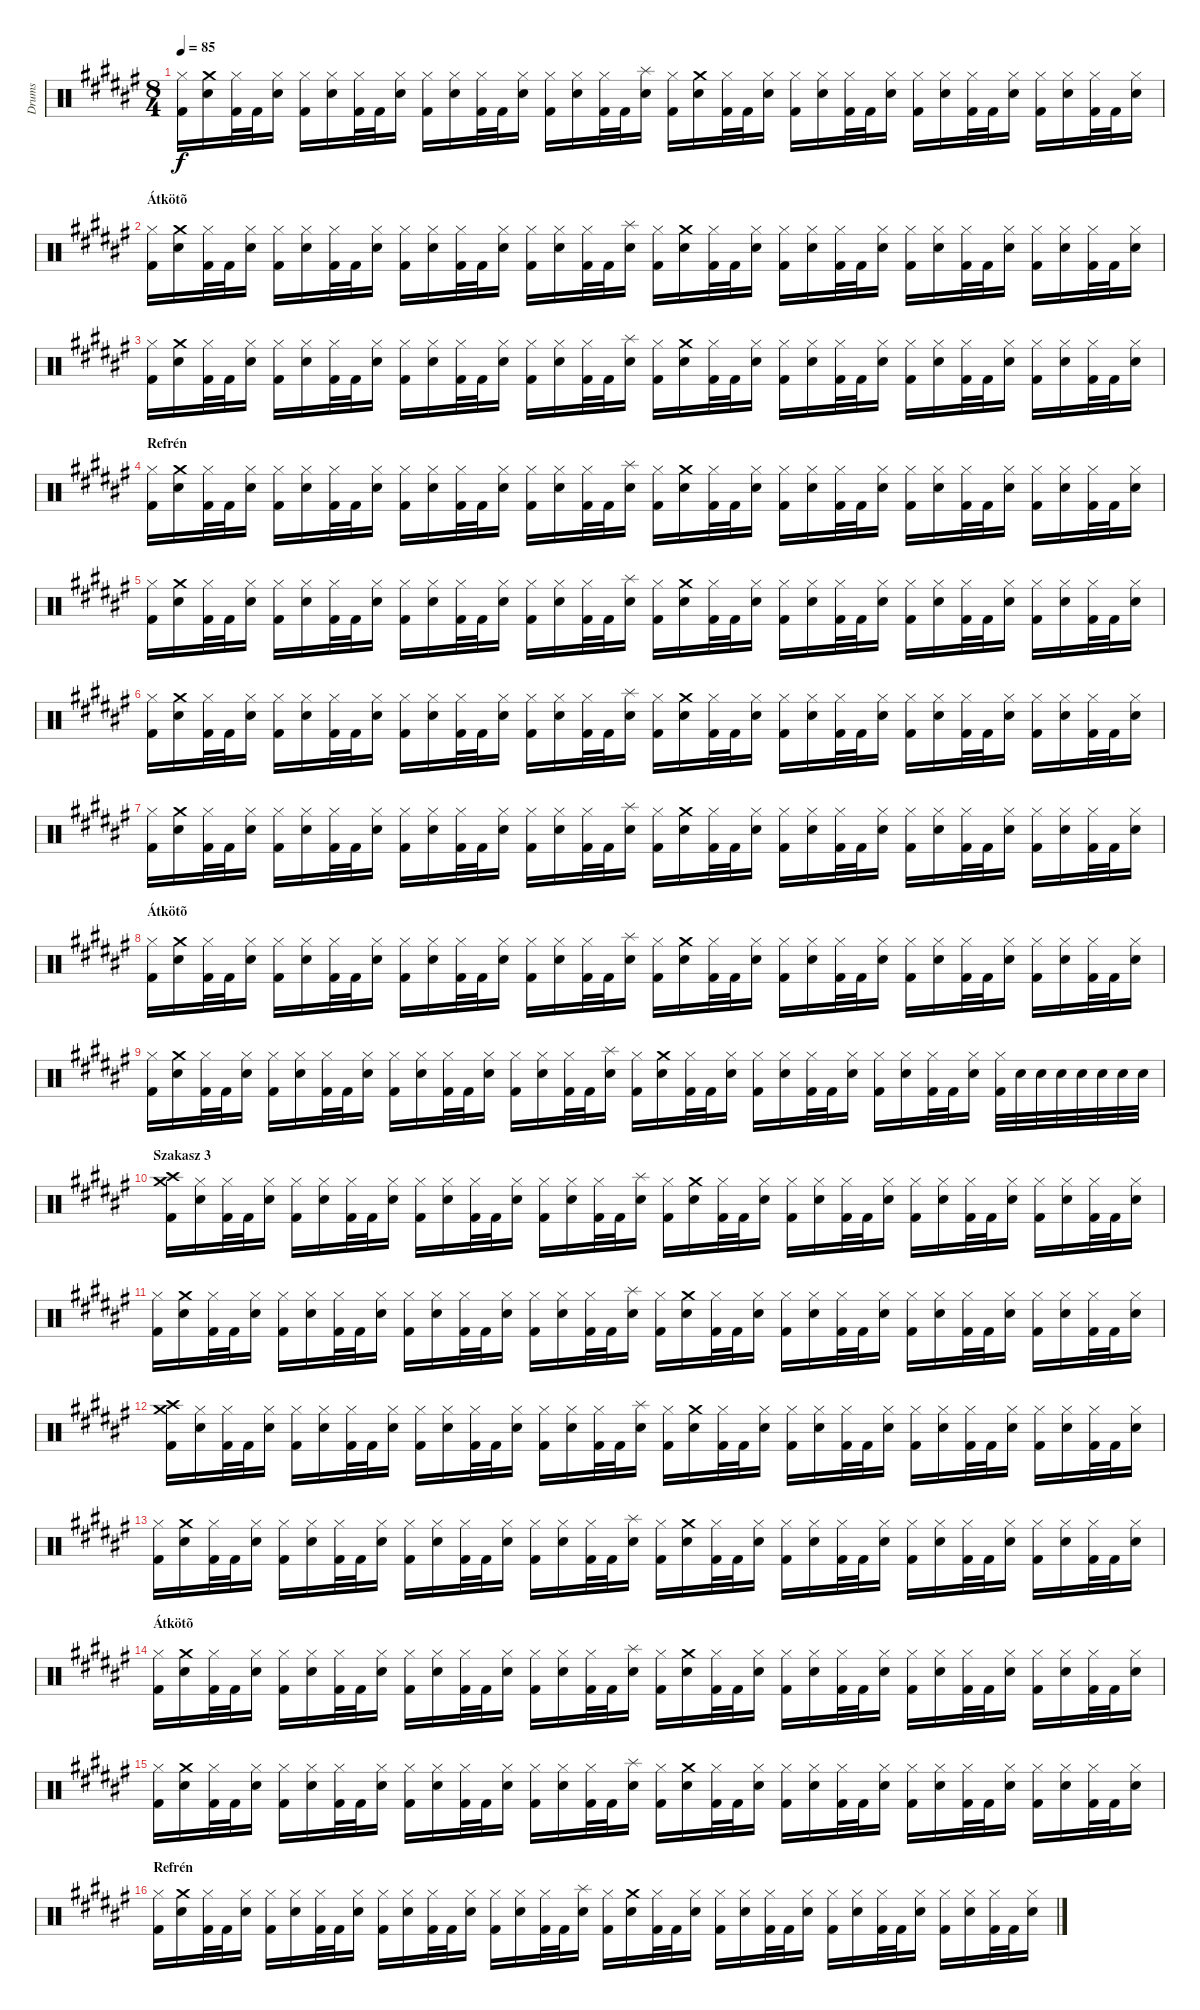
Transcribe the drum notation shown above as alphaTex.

\track ("Drums" "Drums") {instrument percussion}
\staff {score}
\articulation defaults
\ts (8 4)
\tempo 85
\clef neutral
\ks d#minor
("Hi-Hat (closed)" "Kick (hit) 2").16{dy f} ("Crash medium (hit)" "Snare (hit) 2").16 ("Hi-Hat (closed)" "Kick (hit) 2").32 "Kick (hit) 2".32 ("Hi-Hat (closed)" "Snare (hit) 2").16 ("Hi-Hat (closed)" "Kick (hit) 2").16 ("Hi-Hat (closed)" "Snare (hit) 2").16 ("Hi-Hat (closed)" "Kick (hit) 2").32 "Kick (hit) 2".32 ("Hi-Hat (closed)" "Snare (hit) 2").16 ("Hi-Hat (closed)" "Kick (hit) 2").16 ("Hi-Hat (closed)" "Snare (hit) 2").16 ("Hi-Hat (closed)" "Kick (hit) 2").32 "Kick (hit) 2".32 ("Hi-Hat (closed)" "Snare (hit) 2").16 ("Hi-Hat (closed)" "Kick (hit) 2").16 ("Hi-Hat (closed)" "Snare (hit) 2").16 ("Hi-Hat (closed)" "Kick (hit) 2").32 "Kick (hit) 2".32 ("Splash (hit)" "Snare (hit) 2").16 ("Hi-Hat (closed)" "Kick (hit) 2").16 ("Crash medium (hit)" "Snare (hit) 2").16 ("Hi-Hat (closed)" "Kick (hit) 2").32 "Kick (hit) 2".32 ("Hi-Hat (closed)" "Snare (hit) 2").16 ("Hi-Hat (closed)" "Kick (hit) 2").16 ("Hi-Hat (closed)" "Snare (hit) 2").16 ("Hi-Hat (closed)" "Kick (hit) 2").32 "Kick (hit) 2".32 ("Hi-Hat (closed)" "Snare (hit) 2").16 ("Hi-Hat (closed)" "Kick (hit) 2").16 ("Hi-Hat (closed)" "Snare (hit) 2").16 ("Hi-Hat (closed)" "Kick (hit) 2").32 "Kick (hit) 2".32 ("Hi-Hat (closed)" "Snare (hit) 2").16 ("Hi-Hat (closed)" "Kick (hit) 2").16 ("Hi-Hat (closed)" "Snare (hit) 2").16 ("Hi-Hat (closed)" "Kick (hit) 2").32 "Kick (hit) 2".32 ("Hi-Hat (closed)" "Snare (hit) 2").16 |
\section ("" "Átkötõ")
("Hi-Hat (closed)" "Kick (hit) 2").16 ("Crash medium (hit)" "Snare (hit) 2").16 ("Hi-Hat (closed)" "Kick (hit) 2").32 "Kick (hit) 2".32 ("Hi-Hat (closed)" "Snare (hit) 2").16 ("Hi-Hat (closed)" "Kick (hit) 2").16 ("Hi-Hat (closed)" "Snare (hit) 2").16 ("Hi-Hat (closed)" "Kick (hit) 2").32 "Kick (hit) 2".32 ("Hi-Hat (closed)" "Snare (hit) 2").16 ("Hi-Hat (closed)" "Kick (hit) 2").16 ("Hi-Hat (closed)" "Snare (hit) 2").16 ("Hi-Hat (closed)" "Kick (hit) 2").32 "Kick (hit) 2".32 ("Hi-Hat (closed)" "Snare (hit) 2").16 ("Hi-Hat (closed)" "Kick (hit) 2").16 ("Hi-Hat (closed)" "Snare (hit) 2").16 ("Hi-Hat (closed)" "Kick (hit) 2").32 "Kick (hit) 2".32 ("Splash (hit)" "Snare (hit) 2").16 ("Hi-Hat (closed)" "Kick (hit) 2").16 ("Crash medium (hit)" "Snare (hit) 2").16 ("Hi-Hat (closed)" "Kick (hit) 2").32 "Kick (hit) 2".32 ("Hi-Hat (closed)" "Snare (hit) 2").16 ("Hi-Hat (closed)" "Kick (hit) 2").16 ("Hi-Hat (closed)" "Snare (hit) 2").16 ("Hi-Hat (closed)" "Kick (hit) 2").32 "Kick (hit) 2".32 ("Hi-Hat (closed)" "Snare (hit) 2").16 ("Hi-Hat (closed)" "Kick (hit) 2").16 ("Hi-Hat (closed)" "Snare (hit) 2").16 ("Hi-Hat (closed)" "Kick (hit) 2").32 "Kick (hit) 2".32 ("Hi-Hat (closed)" "Snare (hit) 2").16 ("Hi-Hat (closed)" "Kick (hit) 2").16 ("Hi-Hat (closed)" "Snare (hit) 2").16 ("Hi-Hat (closed)" "Kick (hit) 2").32 "Kick (hit) 2".32 ("Hi-Hat (closed)" "Snare (hit) 2").16 |
("Hi-Hat (closed)" "Kick (hit) 2").16 ("Crash medium (hit)" "Snare (hit) 2").16 ("Hi-Hat (closed)" "Kick (hit) 2").32 "Kick (hit) 2".32 ("Hi-Hat (closed)" "Snare (hit) 2").16 ("Hi-Hat (closed)" "Kick (hit) 2").16 ("Hi-Hat (closed)" "Snare (hit) 2").16 ("Hi-Hat (closed)" "Kick (hit) 2").32 "Kick (hit) 2".32 ("Hi-Hat (closed)" "Snare (hit) 2").16 ("Hi-Hat (closed)" "Kick (hit) 2").16 ("Hi-Hat (closed)" "Snare (hit) 2").16 ("Hi-Hat (closed)" "Kick (hit) 2").32 "Kick (hit) 2".32 ("Hi-Hat (closed)" "Snare (hit) 2").16 ("Hi-Hat (closed)" "Kick (hit) 2").16 ("Hi-Hat (closed)" "Snare (hit) 2").16 ("Hi-Hat (closed)" "Kick (hit) 2").32 "Kick (hit) 2".32 ("Splash (hit)" "Snare (hit) 2").16 ("Hi-Hat (closed)" "Kick (hit) 2").16 ("Crash medium (hit)" "Snare (hit) 2").16 ("Hi-Hat (closed)" "Kick (hit) 2").32 "Kick (hit) 2".32 ("Hi-Hat (closed)" "Snare (hit) 2").16 ("Hi-Hat (closed)" "Kick (hit) 2").16 ("Hi-Hat (closed)" "Snare (hit) 2").16 ("Hi-Hat (closed)" "Kick (hit) 2").32 "Kick (hit) 2".32 ("Hi-Hat (closed)" "Snare (hit) 2").16 ("Hi-Hat (closed)" "Kick (hit) 2").16 ("Hi-Hat (closed)" "Snare (hit) 2").16 ("Hi-Hat (closed)" "Kick (hit) 2").32 "Kick (hit) 2".32 ("Hi-Hat (closed)" "Snare (hit) 2").16 ("Hi-Hat (closed)" "Kick (hit) 2").16 ("Hi-Hat (closed)" "Snare (hit) 2").16 ("Hi-Hat (closed)" "Kick (hit) 2").32 "Kick (hit) 2".32 ("Hi-Hat (closed)" "Snare (hit) 2").16 |
\section ("" "Refrén")
("Hi-Hat (closed)" "Kick (hit) 2").16 ("Crash medium (hit)" "Snare (hit) 2").16 ("Hi-Hat (closed)" "Kick (hit) 2").32 "Kick (hit) 2".32 ("Hi-Hat (closed)" "Snare (hit) 2").16 ("Hi-Hat (closed)" "Kick (hit) 2").16 ("Hi-Hat (closed)" "Snare (hit) 2").16 ("Hi-Hat (closed)" "Kick (hit) 2").32 "Kick (hit) 2".32 ("Hi-Hat (closed)" "Snare (hit) 2").16 ("Hi-Hat (closed)" "Kick (hit) 2").16 ("Hi-Hat (closed)" "Snare (hit) 2").16 ("Hi-Hat (closed)" "Kick (hit) 2").32 "Kick (hit) 2".32 ("Hi-Hat (closed)" "Snare (hit) 2").16 ("Hi-Hat (closed)" "Kick (hit) 2").16 ("Hi-Hat (closed)" "Snare (hit) 2").16 ("Hi-Hat (closed)" "Kick (hit) 2").32 "Kick (hit) 2".32 ("Splash (hit)" "Snare (hit) 2").16 ("Hi-Hat (closed)" "Kick (hit) 2").16 ("Crash medium (hit)" "Snare (hit) 2").16 ("Hi-Hat (closed)" "Kick (hit) 2").32 "Kick (hit) 2".32 ("Hi-Hat (closed)" "Snare (hit) 2").16 ("Hi-Hat (closed)" "Kick (hit) 2").16 ("Hi-Hat (closed)" "Snare (hit) 2").16 ("Hi-Hat (closed)" "Kick (hit) 2").32 "Kick (hit) 2".32 ("Hi-Hat (closed)" "Snare (hit) 2").16 ("Hi-Hat (closed)" "Kick (hit) 2").16 ("Hi-Hat (closed)" "Snare (hit) 2").16 ("Hi-Hat (closed)" "Kick (hit) 2").32 "Kick (hit) 2".32 ("Hi-Hat (closed)" "Snare (hit) 2").16 ("Hi-Hat (closed)" "Kick (hit) 2").16 ("Hi-Hat (closed)" "Snare (hit) 2").16 ("Hi-Hat (closed)" "Kick (hit) 2").32 "Kick (hit) 2".32 ("Hi-Hat (closed)" "Snare (hit) 2").16 |
("Hi-Hat (closed)" "Kick (hit) 2").16 ("Crash medium (hit)" "Snare (hit) 2").16 ("Hi-Hat (closed)" "Kick (hit) 2").32 "Kick (hit) 2".32 ("Hi-Hat (closed)" "Snare (hit) 2").16 ("Hi-Hat (closed)" "Kick (hit) 2").16 ("Hi-Hat (closed)" "Snare (hit) 2").16 ("Hi-Hat (closed)" "Kick (hit) 2").32 "Kick (hit) 2".32 ("Hi-Hat (closed)" "Snare (hit) 2").16 ("Hi-Hat (closed)" "Kick (hit) 2").16 ("Hi-Hat (closed)" "Snare (hit) 2").16 ("Hi-Hat (closed)" "Kick (hit) 2").32 "Kick (hit) 2".32 ("Hi-Hat (closed)" "Snare (hit) 2").16 ("Hi-Hat (closed)" "Kick (hit) 2").16 ("Hi-Hat (closed)" "Snare (hit) 2").16 ("Hi-Hat (closed)" "Kick (hit) 2").32 "Kick (hit) 2".32 ("Splash (hit)" "Snare (hit) 2").16 ("Hi-Hat (closed)" "Kick (hit) 2").16 ("Crash medium (hit)" "Snare (hit) 2").16 ("Hi-Hat (closed)" "Kick (hit) 2").32 "Kick (hit) 2".32 ("Hi-Hat (closed)" "Snare (hit) 2").16 ("Hi-Hat (closed)" "Kick (hit) 2").16 ("Hi-Hat (closed)" "Snare (hit) 2").16 ("Hi-Hat (closed)" "Kick (hit) 2").32 "Kick (hit) 2".32 ("Hi-Hat (closed)" "Snare (hit) 2").16 ("Hi-Hat (closed)" "Kick (hit) 2").16 ("Hi-Hat (closed)" "Snare (hit) 2").16 ("Hi-Hat (closed)" "Kick (hit) 2").32 "Kick (hit) 2".32 ("Hi-Hat (closed)" "Snare (hit) 2").16 ("Hi-Hat (closed)" "Kick (hit) 2").16 ("Hi-Hat (closed)" "Snare (hit) 2").16 ("Hi-Hat (closed)" "Kick (hit) 2").32 "Kick (hit) 2".32 ("Hi-Hat (closed)" "Snare (hit) 2").16 |
("Hi-Hat (closed)" "Kick (hit) 2").16 ("Crash medium (hit)" "Snare (hit) 2").16 ("Hi-Hat (closed)" "Kick (hit) 2").32 "Kick (hit) 2".32 ("Hi-Hat (closed)" "Snare (hit) 2").16 ("Hi-Hat (closed)" "Kick (hit) 2").16 ("Hi-Hat (closed)" "Snare (hit) 2").16 ("Hi-Hat (closed)" "Kick (hit) 2").32 "Kick (hit) 2".32 ("Hi-Hat (closed)" "Snare (hit) 2").16 ("Hi-Hat (closed)" "Kick (hit) 2").16 ("Hi-Hat (closed)" "Snare (hit) 2").16 ("Hi-Hat (closed)" "Kick (hit) 2").32 "Kick (hit) 2".32 ("Hi-Hat (closed)" "Snare (hit) 2").16 ("Hi-Hat (closed)" "Kick (hit) 2").16 ("Hi-Hat (closed)" "Snare (hit) 2").16 ("Hi-Hat (closed)" "Kick (hit) 2").32 "Kick (hit) 2".32 ("Splash (hit)" "Snare (hit) 2").16 ("Hi-Hat (closed)" "Kick (hit) 2").16 ("Crash medium (hit)" "Snare (hit) 2").16 ("Hi-Hat (closed)" "Kick (hit) 2").32 "Kick (hit) 2".32 ("Hi-Hat (closed)" "Snare (hit) 2").16 ("Hi-Hat (closed)" "Kick (hit) 2").16 ("Hi-Hat (closed)" "Snare (hit) 2").16 ("Hi-Hat (closed)" "Kick (hit) 2").32 "Kick (hit) 2".32 ("Hi-Hat (closed)" "Snare (hit) 2").16 ("Hi-Hat (closed)" "Kick (hit) 2").16 ("Hi-Hat (closed)" "Snare (hit) 2").16 ("Hi-Hat (closed)" "Kick (hit) 2").32 "Kick (hit) 2".32 ("Hi-Hat (closed)" "Snare (hit) 2").16 ("Hi-Hat (closed)" "Kick (hit) 2").16 ("Hi-Hat (closed)" "Snare (hit) 2").16 ("Hi-Hat (closed)" "Kick (hit) 2").32 "Kick (hit) 2".32 ("Hi-Hat (closed)" "Snare (hit) 2").16 |
("Hi-Hat (closed)" "Kick (hit) 2").16 ("Crash medium (hit)" "Snare (hit) 2").16 ("Hi-Hat (closed)" "Kick (hit) 2").32 "Kick (hit) 2".32 ("Hi-Hat (closed)" "Snare (hit) 2").16 ("Hi-Hat (closed)" "Kick (hit) 2").16 ("Hi-Hat (closed)" "Snare (hit) 2").16 ("Hi-Hat (closed)" "Kick (hit) 2").32 "Kick (hit) 2".32 ("Hi-Hat (closed)" "Snare (hit) 2").16 ("Hi-Hat (closed)" "Kick (hit) 2").16 ("Hi-Hat (closed)" "Snare (hit) 2").16 ("Hi-Hat (closed)" "Kick (hit) 2").32 "Kick (hit) 2".32 ("Hi-Hat (closed)" "Snare (hit) 2").16 ("Hi-Hat (closed)" "Kick (hit) 2").16 ("Hi-Hat (closed)" "Snare (hit) 2").16 ("Hi-Hat (closed)" "Kick (hit) 2").32 "Kick (hit) 2".32 ("Splash (hit)" "Snare (hit) 2").16 ("Hi-Hat (closed)" "Kick (hit) 2").16 ("Crash medium (hit)" "Snare (hit) 2").16 ("Hi-Hat (closed)" "Kick (hit) 2").32 "Kick (hit) 2".32 ("Hi-Hat (closed)" "Snare (hit) 2").16 ("Hi-Hat (closed)" "Kick (hit) 2").16 ("Hi-Hat (closed)" "Snare (hit) 2").16 ("Hi-Hat (closed)" "Kick (hit) 2").32 "Kick (hit) 2".32 ("Hi-Hat (closed)" "Snare (hit) 2").16 ("Hi-Hat (closed)" "Kick (hit) 2").16 ("Hi-Hat (closed)" "Snare (hit) 2").16 ("Hi-Hat (closed)" "Kick (hit) 2").32 "Kick (hit) 2".32 ("Hi-Hat (closed)" "Snare (hit) 2").16 ("Hi-Hat (closed)" "Kick (hit) 2").16 ("Hi-Hat (closed)" "Snare (hit) 2").16 ("Hi-Hat (closed)" "Kick (hit) 2").32 "Kick (hit) 2".32 ("Hi-Hat (closed)" "Snare (hit) 2").16 |
\section ("" "Átkötõ")
("Hi-Hat (closed)" "Kick (hit) 2").16 ("Crash medium (hit)" "Snare (hit) 2").16 ("Hi-Hat (closed)" "Kick (hit) 2").32 "Kick (hit) 2".32 ("Hi-Hat (closed)" "Snare (hit) 2").16 ("Hi-Hat (closed)" "Kick (hit) 2").16 ("Hi-Hat (closed)" "Snare (hit) 2").16 ("Hi-Hat (closed)" "Kick (hit) 2").32 "Kick (hit) 2".32 ("Hi-Hat (closed)" "Snare (hit) 2").16 ("Hi-Hat (closed)" "Kick (hit) 2").16 ("Hi-Hat (closed)" "Snare (hit) 2").16 ("Hi-Hat (closed)" "Kick (hit) 2").32 "Kick (hit) 2".32 ("Hi-Hat (closed)" "Snare (hit) 2").16 ("Hi-Hat (closed)" "Kick (hit) 2").16 ("Hi-Hat (closed)" "Snare (hit) 2").16 ("Hi-Hat (closed)" "Kick (hit) 2").32 "Kick (hit) 2".32 ("Splash (hit)" "Snare (hit) 2").16 ("Hi-Hat (closed)" "Kick (hit) 2").16 ("Crash medium (hit)" "Snare (hit) 2").16 ("Hi-Hat (closed)" "Kick (hit) 2").32 "Kick (hit) 2".32 ("Hi-Hat (closed)" "Snare (hit) 2").16 ("Hi-Hat (closed)" "Kick (hit) 2").16 ("Hi-Hat (closed)" "Snare (hit) 2").16 ("Hi-Hat (closed)" "Kick (hit) 2").32 "Kick (hit) 2".32 ("Hi-Hat (closed)" "Snare (hit) 2").16 ("Hi-Hat (closed)" "Kick (hit) 2").16 ("Hi-Hat (closed)" "Snare (hit) 2").16 ("Hi-Hat (closed)" "Kick (hit) 2").32 "Kick (hit) 2".32 ("Hi-Hat (closed)" "Snare (hit) 2").16 ("Hi-Hat (closed)" "Kick (hit) 2").16 ("Hi-Hat (closed)" "Snare (hit) 2").16 ("Hi-Hat (closed)" "Kick (hit) 2").32 "Kick (hit) 2".32 ("Hi-Hat (closed)" "Snare (hit) 2").16 |
("Hi-Hat (closed)" "Kick (hit) 2").16 ("Crash medium (hit)" "Snare (hit) 2").16 ("Hi-Hat (closed)" "Kick (hit) 2").32 "Kick (hit) 2".32 ("Hi-Hat (closed)" "Snare (hit) 2").16 ("Hi-Hat (closed)" "Kick (hit) 2").16 ("Hi-Hat (closed)" "Snare (hit) 2").16 ("Hi-Hat (closed)" "Kick (hit) 2").32 "Kick (hit) 2".32 ("Hi-Hat (closed)" "Snare (hit) 2").16 ("Hi-Hat (closed)" "Kick (hit) 2").16 ("Hi-Hat (closed)" "Snare (hit) 2").16 ("Hi-Hat (closed)" "Kick (hit) 2").32 "Kick (hit) 2".32 ("Hi-Hat (closed)" "Snare (hit) 2").16 ("Hi-Hat (closed)" "Kick (hit) 2").16 ("Hi-Hat (closed)" "Snare (hit) 2").16 ("Hi-Hat (closed)" "Kick (hit) 2").32 "Kick (hit) 2".32 ("Splash (hit)" "Snare (hit) 2").16 ("Hi-Hat (closed)" "Kick (hit) 2").16 ("Crash medium (hit)" "Snare (hit) 2").16 ("Hi-Hat (closed)" "Kick (hit) 2").32 "Kick (hit) 2".32 ("Hi-Hat (closed)" "Snare (hit) 2").16 ("Hi-Hat (closed)" "Kick (hit) 2").16 ("Hi-Hat (closed)" "Snare (hit) 2").16 ("Hi-Hat (closed)" "Kick (hit) 2").32 "Kick (hit) 2".32 ("Hi-Hat (closed)" "Snare (hit) 2").16 ("Hi-Hat (closed)" "Kick (hit) 2").16 ("Hi-Hat (closed)" "Snare (hit) 2").16 ("Hi-Hat (closed)" "Kick (hit) 2").32 "Kick (hit) 2".32 ("Hi-Hat (closed)" "Snare (hit) 2").16 ("Hi-Hat (closed)" "Kick (hit) 2").32 "Snare (hit) 2".32 "Snare (hit) 2".32 "Snare (hit) 2".32 "Snare (hit) 2".32 "Snare (hit) 2".32 "Snare (hit) 2".32 "Snare (hit) 2".32 |
\section ("" "Szakasz 3")
("Crash medium (hit)" "Crash high (hit)" "Kick (hit) 2").16 ("Hi-Hat (closed)" "Snare (hit) 2").16 ("Hi-Hat (closed)" "Kick (hit) 2").32 "Kick (hit) 2".32 ("Hi-Hat (closed)" "Snare (hit) 2").16 ("Hi-Hat (closed)" "Kick (hit) 2").16 ("Hi-Hat (closed)" "Snare (hit) 2").16 ("Hi-Hat (closed)" "Kick (hit) 2").32 "Kick (hit) 2".32 ("Hi-Hat (closed)" "Snare (hit) 2").16 ("Hi-Hat (closed)" "Kick (hit) 2").16 ("Hi-Hat (closed)" "Snare (hit) 2").16 ("Hi-Hat (closed)" "Kick (hit) 2").32 "Kick (hit) 2".32 ("Hi-Hat (closed)" "Snare (hit) 2").16 ("Hi-Hat (closed)" "Kick (hit) 2").16 ("Hi-Hat (closed)" "Snare (hit) 2").16 ("Hi-Hat (closed)" "Kick (hit) 2").32 "Kick (hit) 2".32 ("Splash (hit)" "Snare (hit) 2").16 ("Hi-Hat (closed)" "Kick (hit) 2").16 ("Crash medium (hit)" "Snare (hit) 2").16 ("Hi-Hat (closed)" "Kick (hit) 2").32 "Kick (hit) 2".32 ("Hi-Hat (closed)" "Snare (hit) 2").16 ("Hi-Hat (closed)" "Kick (hit) 2").16 ("Hi-Hat (closed)" "Snare (hit) 2").16 ("Hi-Hat (closed)" "Kick (hit) 2").32 "Kick (hit) 2".32 ("Hi-Hat (closed)" "Snare (hit) 2").16 ("Hi-Hat (closed)" "Kick (hit) 2").16 ("Hi-Hat (closed)" "Snare (hit) 2").16 ("Hi-Hat (closed)" "Kick (hit) 2").32 "Kick (hit) 2".32 ("Hi-Hat (closed)" "Snare (hit) 2").16 ("Hi-Hat (closed)" "Kick (hit) 2").16 ("Hi-Hat (closed)" "Snare (hit) 2").16 ("Hi-Hat (closed)" "Kick (hit) 2").32 "Kick (hit) 2".32 ("Hi-Hat (closed)" "Snare (hit) 2").16 |
("Hi-Hat (closed)" "Kick (hit) 2").16 ("Crash medium (hit)" "Snare (hit) 2").16 ("Hi-Hat (closed)" "Kick (hit) 2").32 "Kick (hit) 2".32 ("Hi-Hat (closed)" "Snare (hit) 2").16 ("Hi-Hat (closed)" "Kick (hit) 2").16 ("Hi-Hat (closed)" "Snare (hit) 2").16 ("Hi-Hat (closed)" "Kick (hit) 2").32 "Kick (hit) 2".32 ("Hi-Hat (closed)" "Snare (hit) 2").16 ("Hi-Hat (closed)" "Kick (hit) 2").16 ("Hi-Hat (closed)" "Snare (hit) 2").16 ("Hi-Hat (closed)" "Kick (hit) 2").32 "Kick (hit) 2".32 ("Hi-Hat (closed)" "Snare (hit) 2").16 ("Hi-Hat (closed)" "Kick (hit) 2").16 ("Hi-Hat (closed)" "Snare (hit) 2").16 ("Hi-Hat (closed)" "Kick (hit) 2").32 "Kick (hit) 2".32 ("Splash (hit)" "Snare (hit) 2").16 ("Hi-Hat (closed)" "Kick (hit) 2").16 ("Crash medium (hit)" "Snare (hit) 2").16 ("Hi-Hat (closed)" "Kick (hit) 2").32 "Kick (hit) 2".32 ("Hi-Hat (closed)" "Snare (hit) 2").16 ("Hi-Hat (closed)" "Kick (hit) 2").16 ("Hi-Hat (closed)" "Snare (hit) 2").16 ("Hi-Hat (closed)" "Kick (hit) 2").32 "Kick (hit) 2".32 ("Hi-Hat (closed)" "Snare (hit) 2").16 ("Hi-Hat (closed)" "Kick (hit) 2").16 ("Hi-Hat (closed)" "Snare (hit) 2").16 ("Hi-Hat (closed)" "Kick (hit) 2").32 "Kick (hit) 2".32 ("Hi-Hat (closed)" "Snare (hit) 2").16 ("Hi-Hat (closed)" "Kick (hit) 2").16 ("Hi-Hat (closed)" "Snare (hit) 2").16 ("Hi-Hat (closed)" "Kick (hit) 2").32 "Kick (hit) 2".32 ("Hi-Hat (closed)" "Snare (hit) 2").16 |
("Crash medium (hit)" "Crash high (hit)" "Kick (hit) 2").16 ("Hi-Hat (closed)" "Snare (hit) 2").16 ("Hi-Hat (closed)" "Kick (hit) 2").32 "Kick (hit) 2".32 ("Hi-Hat (closed)" "Snare (hit) 2").16 ("Hi-Hat (closed)" "Kick (hit) 2").16 ("Hi-Hat (closed)" "Snare (hit) 2").16 ("Hi-Hat (closed)" "Kick (hit) 2").32 "Kick (hit) 2".32 ("Hi-Hat (closed)" "Snare (hit) 2").16 ("Hi-Hat (closed)" "Kick (hit) 2").16 ("Hi-Hat (closed)" "Snare (hit) 2").16 ("Hi-Hat (closed)" "Kick (hit) 2").32 "Kick (hit) 2".32 ("Hi-Hat (closed)" "Snare (hit) 2").16 ("Hi-Hat (closed)" "Kick (hit) 2").16 ("Hi-Hat (closed)" "Snare (hit) 2").16 ("Hi-Hat (closed)" "Kick (hit) 2").32 "Kick (hit) 2".32 ("Splash (hit)" "Snare (hit) 2").16 ("Hi-Hat (closed)" "Kick (hit) 2").16 ("Crash medium (hit)" "Snare (hit) 2").16 ("Hi-Hat (closed)" "Kick (hit) 2").32 "Kick (hit) 2".32 ("Hi-Hat (closed)" "Snare (hit) 2").16 ("Hi-Hat (closed)" "Kick (hit) 2").16 ("Hi-Hat (closed)" "Snare (hit) 2").16 ("Hi-Hat (closed)" "Kick (hit) 2").32 "Kick (hit) 2".32 ("Hi-Hat (closed)" "Snare (hit) 2").16 ("Hi-Hat (closed)" "Kick (hit) 2").16 ("Hi-Hat (closed)" "Snare (hit) 2").16 ("Hi-Hat (closed)" "Kick (hit) 2").32 "Kick (hit) 2".32 ("Hi-Hat (closed)" "Snare (hit) 2").16 ("Hi-Hat (closed)" "Kick (hit) 2").16 ("Hi-Hat (closed)" "Snare (hit) 2").16 ("Hi-Hat (closed)" "Kick (hit) 2").32 "Kick (hit) 2".32 ("Hi-Hat (closed)" "Snare (hit) 2").16 |
("Hi-Hat (closed)" "Kick (hit) 2").16 ("Crash medium (hit)" "Snare (hit) 2").16 ("Hi-Hat (closed)" "Kick (hit) 2").32 "Kick (hit) 2".32 ("Hi-Hat (closed)" "Snare (hit) 2").16 ("Hi-Hat (closed)" "Kick (hit) 2").16 ("Hi-Hat (closed)" "Snare (hit) 2").16 ("Hi-Hat (closed)" "Kick (hit) 2").32 "Kick (hit) 2".32 ("Hi-Hat (closed)" "Snare (hit) 2").16 ("Hi-Hat (closed)" "Kick (hit) 2").16 ("Hi-Hat (closed)" "Snare (hit) 2").16 ("Hi-Hat (closed)" "Kick (hit) 2").32 "Kick (hit) 2".32 ("Hi-Hat (closed)" "Snare (hit) 2").16 ("Hi-Hat (closed)" "Kick (hit) 2").16 ("Hi-Hat (closed)" "Snare (hit) 2").16 ("Hi-Hat (closed)" "Kick (hit) 2").32 "Kick (hit) 2".32 ("Splash (hit)" "Snare (hit) 2").16 ("Hi-Hat (closed)" "Kick (hit) 2").16 ("Crash medium (hit)" "Snare (hit) 2").16 ("Hi-Hat (closed)" "Kick (hit) 2").32 "Kick (hit) 2".32 ("Hi-Hat (closed)" "Snare (hit) 2").16 ("Hi-Hat (closed)" "Kick (hit) 2").16 ("Hi-Hat (closed)" "Snare (hit) 2").16 ("Hi-Hat (closed)" "Kick (hit) 2").32 "Kick (hit) 2".32 ("Hi-Hat (closed)" "Snare (hit) 2").16 ("Hi-Hat (closed)" "Kick (hit) 2").16 ("Hi-Hat (closed)" "Snare (hit) 2").16 ("Hi-Hat (closed)" "Kick (hit) 2").32 "Kick (hit) 2".32 ("Hi-Hat (closed)" "Snare (hit) 2").16 ("Hi-Hat (closed)" "Kick (hit) 2").16 ("Hi-Hat (closed)" "Snare (hit) 2").16 ("Hi-Hat (closed)" "Kick (hit) 2").32 "Kick (hit) 2".32 ("Hi-Hat (closed)" "Snare (hit) 2").16 |
\section ("" "Átkötõ")
("Hi-Hat (closed)" "Kick (hit) 2").16 ("Crash medium (hit)" "Snare (hit) 2").16 ("Hi-Hat (closed)" "Kick (hit) 2").32 "Kick (hit) 2".32 ("Hi-Hat (closed)" "Snare (hit) 2").16 ("Hi-Hat (closed)" "Kick (hit) 2").16 ("Hi-Hat (closed)" "Snare (hit) 2").16 ("Hi-Hat (closed)" "Kick (hit) 2").32 "Kick (hit) 2".32 ("Hi-Hat (closed)" "Snare (hit) 2").16 ("Hi-Hat (closed)" "Kick (hit) 2").16 ("Hi-Hat (closed)" "Snare (hit) 2").16 ("Hi-Hat (closed)" "Kick (hit) 2").32 "Kick (hit) 2".32 ("Hi-Hat (closed)" "Snare (hit) 2").16 ("Hi-Hat (closed)" "Kick (hit) 2").16 ("Hi-Hat (closed)" "Snare (hit) 2").16 ("Hi-Hat (closed)" "Kick (hit) 2").32 "Kick (hit) 2".32 ("Splash (hit)" "Snare (hit) 2").16 ("Hi-Hat (closed)" "Kick (hit) 2").16 ("Crash medium (hit)" "Snare (hit) 2").16 ("Hi-Hat (closed)" "Kick (hit) 2").32 "Kick (hit) 2".32 ("Hi-Hat (closed)" "Snare (hit) 2").16 ("Hi-Hat (closed)" "Kick (hit) 2").16 ("Hi-Hat (closed)" "Snare (hit) 2").16 ("Hi-Hat (closed)" "Kick (hit) 2").32 "Kick (hit) 2".32 ("Hi-Hat (closed)" "Snare (hit) 2").16 ("Hi-Hat (closed)" "Kick (hit) 2").16 ("Hi-Hat (closed)" "Snare (hit) 2").16 ("Hi-Hat (closed)" "Kick (hit) 2").32 "Kick (hit) 2".32 ("Hi-Hat (closed)" "Snare (hit) 2").16 ("Hi-Hat (closed)" "Kick (hit) 2").16 ("Hi-Hat (closed)" "Snare (hit) 2").16 ("Hi-Hat (closed)" "Kick (hit) 2").32 "Kick (hit) 2".32 ("Hi-Hat (closed)" "Snare (hit) 2").16 |
("Hi-Hat (closed)" "Kick (hit) 2").16 ("Crash medium (hit)" "Snare (hit) 2").16 ("Hi-Hat (closed)" "Kick (hit) 2").32 "Kick (hit) 2".32 ("Hi-Hat (closed)" "Snare (hit) 2").16 ("Hi-Hat (closed)" "Kick (hit) 2").16 ("Hi-Hat (closed)" "Snare (hit) 2").16 ("Hi-Hat (closed)" "Kick (hit) 2").32 "Kick (hit) 2".32 ("Hi-Hat (closed)" "Snare (hit) 2").16 ("Hi-Hat (closed)" "Kick (hit) 2").16 ("Hi-Hat (closed)" "Snare (hit) 2").16 ("Hi-Hat (closed)" "Kick (hit) 2").32 "Kick (hit) 2".32 ("Hi-Hat (closed)" "Snare (hit) 2").16 ("Hi-Hat (closed)" "Kick (hit) 2").16 ("Hi-Hat (closed)" "Snare (hit) 2").16 ("Hi-Hat (closed)" "Kick (hit) 2").32 "Kick (hit) 2".32 ("Splash (hit)" "Snare (hit) 2").16 ("Hi-Hat (closed)" "Kick (hit) 2").16 ("Crash medium (hit)" "Snare (hit) 2").16 ("Hi-Hat (closed)" "Kick (hit) 2").32 "Kick (hit) 2".32 ("Hi-Hat (closed)" "Snare (hit) 2").16 ("Hi-Hat (closed)" "Kick (hit) 2").16 ("Hi-Hat (closed)" "Snare (hit) 2").16 ("Hi-Hat (closed)" "Kick (hit) 2").32 "Kick (hit) 2".32 ("Hi-Hat (closed)" "Snare (hit) 2").16 ("Hi-Hat (closed)" "Kick (hit) 2").16 ("Hi-Hat (closed)" "Snare (hit) 2").16 ("Hi-Hat (closed)" "Kick (hit) 2").32 "Kick (hit) 2".32 ("Hi-Hat (closed)" "Snare (hit) 2").16 ("Hi-Hat (closed)" "Kick (hit) 2").16 ("Hi-Hat (closed)" "Snare (hit) 2").16 ("Hi-Hat (closed)" "Kick (hit) 2").32 "Kick (hit) 2".32 ("Hi-Hat (closed)" "Snare (hit) 2").16 |
\section ("" "Refrén")
("Hi-Hat (closed)" "Kick (hit) 2").16 ("Crash medium (hit)" "Snare (hit) 2").16 ("Hi-Hat (closed)" "Kick (hit) 2").32 "Kick (hit) 2".32 ("Hi-Hat (closed)" "Snare (hit) 2").16 ("Hi-Hat (closed)" "Kick (hit) 2").16 ("Hi-Hat (closed)" "Snare (hit) 2").16 ("Hi-Hat (closed)" "Kick (hit) 2").32 "Kick (hit) 2".32 ("Hi-Hat (closed)" "Snare (hit) 2").16 ("Hi-Hat (closed)" "Kick (hit) 2").16 ("Hi-Hat (closed)" "Snare (hit) 2").16 ("Hi-Hat (closed)" "Kick (hit) 2").32 "Kick (hit) 2".32 ("Hi-Hat (closed)" "Snare (hit) 2").16 ("Hi-Hat (closed)" "Kick (hit) 2").16 ("Hi-Hat (closed)" "Snare (hit) 2").16 ("Hi-Hat (closed)" "Kick (hit) 2").32 "Kick (hit) 2".32 ("Splash (hit)" "Snare (hit) 2").16 ("Hi-Hat (closed)" "Kick (hit) 2").16 ("Crash medium (hit)" "Snare (hit) 2").16 ("Hi-Hat (closed)" "Kick (hit) 2").32 "Kick (hit) 2".32 ("Hi-Hat (closed)" "Snare (hit) 2").16 ("Hi-Hat (closed)" "Kick (hit) 2").16 ("Hi-Hat (closed)" "Snare (hit) 2").16 ("Hi-Hat (closed)" "Kick (hit) 2").32 "Kick (hit) 2".32 ("Hi-Hat (closed)" "Snare (hit) 2").16 ("Hi-Hat (closed)" "Kick (hit) 2").16 ("Hi-Hat (closed)" "Snare (hit) 2").16 ("Hi-Hat (closed)" "Kick (hit) 2").32 "Kick (hit) 2".32 ("Hi-Hat (closed)" "Snare (hit) 2").16 ("Hi-Hat (closed)" "Kick (hit) 2").16 ("Hi-Hat (closed)" "Snare (hit) 2").16 ("Hi-Hat (closed)" "Kick (hit) 2").32 "Kick (hit) 2".32 ("Hi-Hat (closed)" "Snare (hit) 2").16
